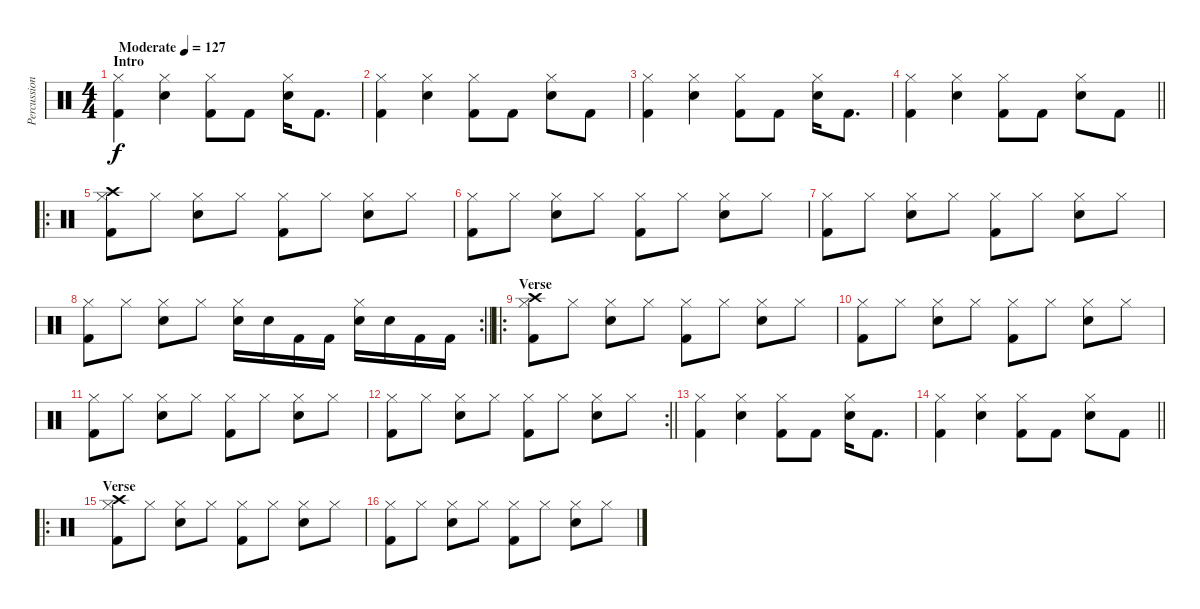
\track ("Percussions" "Percussion") {instrument percussion}
\staff {score}
\articulation defaults
\ts (4 4)
\section ("" "Intro")
\tempo (127 "Moderate")
\clef neutral
\ks c
("Hi-Hat (closed)" "Kick (hit) 2").4{dy f} ("Hi-Hat (closed)" "Electric Snare (hit)").4 ("Hi-Hat (closed)" "Kick (hit) 2").8 "Kick (hit) 2".8 ("Hi-Hat (closed)" "Electric Snare (hit)").16 "Kick (hit) 2".8{d} |
("Hi-Hat (closed)" "Kick (hit) 2").4 ("Hi-Hat (closed)" "Electric Snare (hit)").4 ("Hi-Hat (closed)" "Kick (hit) 2").8 "Kick (hit) 2".8 ("Hi-Hat (closed)" "Electric Snare (hit)").8 "Kick (hit) 2".8 |
("Hi-Hat (closed)" "Kick (hit) 2").4 ("Hi-Hat (closed)" "Electric Snare (hit)").4 ("Hi-Hat (closed)" "Kick (hit) 2").8 "Kick (hit) 2".8 ("Hi-Hat (closed)" "Electric Snare (hit)").16 "Kick (hit) 2".8{d} |
\barLineRight lightlight
("Hi-Hat (closed)" "Kick (hit) 2").4 ("Hi-Hat (closed)" "Electric Snare (hit)").4 ("Hi-Hat (closed)" "Kick (hit) 2").8 "Kick (hit) 2".8 ("Hi-Hat (closed)" "Electric Snare (hit)").8 "Kick (hit) 2".8 |
\ro
("Hi-Hat (closed)" "Crash high (hit)" "Kick (hit) 2").8 "Hi-Hat (closed)".8 ("Hi-Hat (closed)" "Electric Snare (hit)").8 "Hi-Hat (closed)".8 ("Hi-Hat (closed)" "Kick (hit) 2").8 "Hi-Hat (closed)".8 ("Hi-Hat (closed)" "Electric Snare (hit)").8 "Hi-Hat (closed)".8 |
("Hi-Hat (closed)" "Kick (hit) 2").8 "Hi-Hat (closed)".8 ("Hi-Hat (closed)" "Electric Snare (hit)").8 "Hi-Hat (closed)".8 ("Hi-Hat (closed)" "Kick (hit) 2").8 "Hi-Hat (closed)".8 ("Hi-Hat (closed)" "Electric Snare (hit)").8 "Hi-Hat (closed)".8 |
("Hi-Hat (closed)" "Kick (hit) 2").8 "Hi-Hat (closed)".8 ("Hi-Hat (closed)" "Electric Snare (hit)").8 "Hi-Hat (closed)".8 ("Hi-Hat (closed)" "Kick (hit) 2").8 "Hi-Hat (closed)".8 ("Hi-Hat (closed)" "Electric Snare (hit)").8 "Hi-Hat (closed)".8 |
\rc 2
\barLineRight lightlight
("Hi-Hat (closed)" "Kick (hit) 2").8 "Hi-Hat (closed)".8 ("Hi-Hat (closed)" "Electric Snare (hit)").8 "Hi-Hat (closed)".8 ("Hi-Hat (closed)" "Electric Snare (hit)").16 "Electric Snare (hit)".16 "Kick (hit) 2".16 "Kick (hit) 2".16 ("Hi-Hat (closed)" "Electric Snare (hit)").16 "Electric Snare (hit)".16 "Kick (hit) 2".16 "Kick (hit) 2".16 |
\ro
\section ("" "Verse")
("Hi-Hat (closed)" "Crash high (hit)" "Kick (hit) 2").8 "Hi-Hat (closed)".8 ("Hi-Hat (closed)" "Electric Snare (hit)").8 "Hi-Hat (closed)".8 ("Hi-Hat (closed)" "Kick (hit) 2").8 "Hi-Hat (closed)".8 ("Hi-Hat (closed)" "Electric Snare (hit)").8 "Hi-Hat (closed)".8 |
("Hi-Hat (closed)" "Kick (hit) 2").8 "Hi-Hat (closed)".8 ("Hi-Hat (closed)" "Electric Snare (hit)").8 "Hi-Hat (closed)".8 ("Hi-Hat (closed)" "Kick (hit) 2").8 "Hi-Hat (closed)".8 ("Hi-Hat (closed)" "Electric Snare (hit)").8 "Hi-Hat (closed)".8 |
("Hi-Hat (closed)" "Kick (hit) 2").8 "Hi-Hat (closed)".8 ("Hi-Hat (closed)" "Electric Snare (hit)").8 "Hi-Hat (closed)".8 ("Hi-Hat (closed)" "Kick (hit) 2").8 "Hi-Hat (closed)".8 ("Hi-Hat (closed)" "Electric Snare (hit)").8 "Hi-Hat (closed)".8 |
\rc 2
\barLineRight lightlight
("Hi-Hat (closed)" "Kick (hit) 2").8 "Hi-Hat (closed)".8 ("Hi-Hat (closed)" "Electric Snare (hit)").8 "Hi-Hat (closed)".8 ("Hi-Hat (closed)" "Kick (hit) 2").8 "Hi-Hat (closed)".8 ("Hi-Hat (closed)" "Electric Snare (hit)").8 "Hi-Hat (closed)".8 |
("Hi-Hat (closed)" "Kick (hit) 2").4 ("Hi-Hat (closed)" "Electric Snare (hit)").4 ("Hi-Hat (closed)" "Kick (hit) 2").8 "Kick (hit) 2".8 ("Hi-Hat (closed)" "Electric Snare (hit)").16 "Kick (hit) 2".8{d} |
\barLineRight lightlight
("Hi-Hat (closed)" "Kick (hit) 2").4 ("Hi-Hat (closed)" "Electric Snare (hit)").4 ("Hi-Hat (closed)" "Kick (hit) 2").8 "Kick (hit) 2".8 ("Hi-Hat (closed)" "Electric Snare (hit)").8 "Kick (hit) 2".8 |
\ro
\section ("" "Verse")
("Hi-Hat (closed)" "Crash high (hit)" "Kick (hit) 2").8 "Hi-Hat (closed)".8 ("Hi-Hat (closed)" "Electric Snare (hit)").8 "Hi-Hat (closed)".8 ("Hi-Hat (closed)" "Kick (hit) 2").8 "Hi-Hat (closed)".8 ("Hi-Hat (closed)" "Electric Snare (hit)").8 "Hi-Hat (closed)".8 |
("Hi-Hat (closed)" "Kick (hit) 2").8 "Hi-Hat (closed)".8 ("Hi-Hat (closed)" "Electric Snare (hit)").8 "Hi-Hat (closed)".8 ("Hi-Hat (closed)" "Kick (hit) 2").8 "Hi-Hat (closed)".8 ("Hi-Hat (closed)" "Electric Snare (hit)").8 "Hi-Hat (closed)".8
